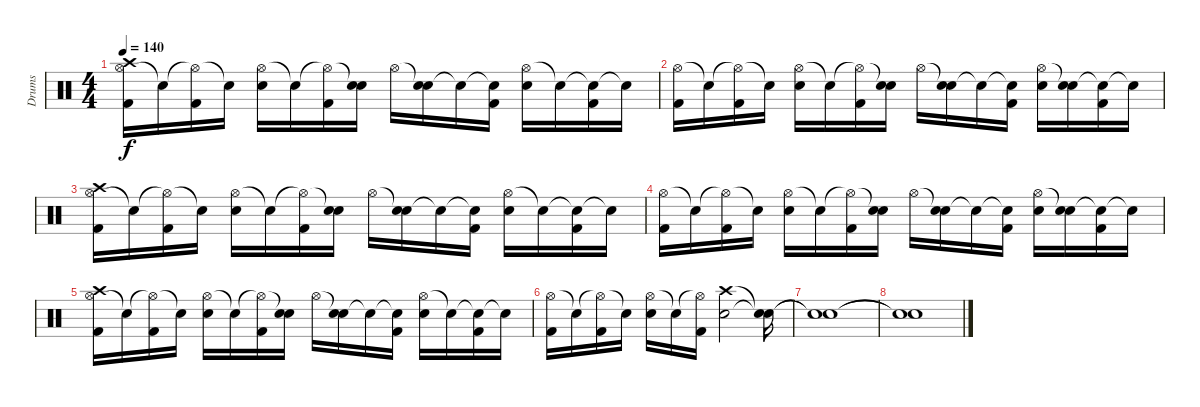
\track ("Drums" "Drums") {instrument percussion}
\staff {score}
\articulation defaults
\ts (4 4)
\tempo 140
\clef neutral
\ks c
("Hi-Hat (open)" "Kick (hit) 2" "Crash high (hit)").16{dy f} "Snare (hit)"{t}.16 ("Hi-Hat (open)"{t} "Kick (hit) 2").16 "Snare (hit)"{t}.16 ("Hi-Hat (open)" "Electric Snare (hit)").16 "Snare (hit)"{t}.16 ("Hi-Hat (open)"{t} "Kick (hit) 2").16 ("Snare (hit)"{t} "Electric Snare (hit)").16 "Hi-Hat (open)".16 ("Snare (hit)"{t} "Electric Snare (hit)").16 "Snare (hit)"{t}.16 ("Snare (hit)"{t} "Kick (hit) 2").16 ("Hi-Hat (open)" "Electric Snare (hit)").16 "Snare (hit)"{t}.16 ("Snare (hit)"{t} "Kick (hit) 2").16 "Snare (hit)"{t}.16 |
("Hi-Hat (open)" "Kick (hit) 2").16 "Snare (hit)"{t}.16 ("Hi-Hat (open)"{t} "Kick (hit) 2").16 "Snare (hit)"{t}.16 ("Hi-Hat (open)" "Electric Snare (hit)").16 "Snare (hit)"{t}.16 ("Hi-Hat (open)"{t} "Kick (hit) 2").16 ("Snare (hit)"{t} "Electric Snare (hit)").16 "Hi-Hat (open)".16 ("Snare (hit)"{t} "Electric Snare (hit)").16 "Snare (hit)"{t}.16 ("Snare (hit)"{t} "Kick (hit) 2").16 ("Hi-Hat (open)" "Electric Snare (hit)").16 ("Snare (hit)"{t} "Electric Snare (hit)").16 ("Snare (hit)"{t} "Kick (hit) 2").16 "Snare (hit)"{t}.16 |
("Hi-Hat (open)" "Kick (hit) 2" "Crash high (hit)").16 "Snare (hit)"{t}.16 ("Hi-Hat (open)"{t} "Kick (hit) 2").16 "Snare (hit)"{t}.16 ("Hi-Hat (open)" "Electric Snare (hit)").16 "Snare (hit)"{t}.16 ("Hi-Hat (open)"{t} "Kick (hit) 2").16 ("Snare (hit)"{t} "Electric Snare (hit)").16 "Hi-Hat (open)".16 ("Snare (hit)"{t} "Electric Snare (hit)").16 "Snare (hit)"{t}.16 ("Snare (hit)"{t} "Kick (hit) 2").16 ("Hi-Hat (open)" "Electric Snare (hit)").16 "Snare (hit)"{t}.16 ("Snare (hit)"{t} "Kick (hit) 2").16 "Snare (hit)"{t}.16 |
("Hi-Hat (open)" "Kick (hit) 2").16 "Snare (hit)"{t}.16 ("Hi-Hat (open)"{t} "Kick (hit) 2").16 "Snare (hit)"{t}.16 ("Hi-Hat (open)" "Electric Snare (hit)").16 "Snare (hit)"{t}.16 ("Hi-Hat (open)"{t} "Kick (hit) 2").16 ("Snare (hit)"{t} "Electric Snare (hit)").16 "Hi-Hat (open)".16 ("Snare (hit)"{t} "Electric Snare (hit)").16 "Snare (hit)"{t}.16 ("Snare (hit)"{t} "Kick (hit) 2").16 ("Hi-Hat (open)" "Electric Snare (hit)").16 ("Snare (hit)"{t} "Electric Snare (hit)").16 ("Snare (hit)"{t} "Kick (hit) 2").16 "Snare (hit)"{t}.16 |
("Hi-Hat (open)" "Kick (hit) 2" "Crash high (hit)").16 "Snare (hit)"{t}.16 ("Hi-Hat (open)"{t} "Kick (hit) 2").16 "Snare (hit)"{t}.16 ("Hi-Hat (open)" "Electric Snare (hit)").16 "Snare (hit)"{t}.16 ("Hi-Hat (open)"{t} "Kick (hit) 2").16 ("Snare (hit)"{t} "Electric Snare (hit)").16 "Hi-Hat (open)".16 ("Snare (hit)"{t} "Electric Snare (hit)").16 "Snare (hit)"{t}.16 ("Snare (hit)"{t} "Kick (hit) 2").16 ("Hi-Hat (open)" "Electric Snare (hit)").16 "Snare (hit)"{t}.16 ("Snare (hit)"{t} "Kick (hit) 2").16 "Snare (hit)"{t}.16 |
("Hi-Hat (open)" "Kick (hit) 2").16 "Snare (hit)"{t}.16 ("Hi-Hat (open)"{t} "Kick (hit) 2").16 "Snare (hit)"{t}.16 ("Hi-Hat (open)" "Electric Snare (hit)").16 "Snare (hit)"{t}.16 ("Hi-Hat (open)"{t} "Kick (hit) 2").16 ("Electric Snare (hit)" "Crash high (hit)").2 ("Snare (hit)"{t} "Snare (hit)"{t}).16 |
("Snare (hit)"{t} "Snare (hit)"{t}).1 |
("Snare (hit)"{t} "Snare (hit)"{t}).1
